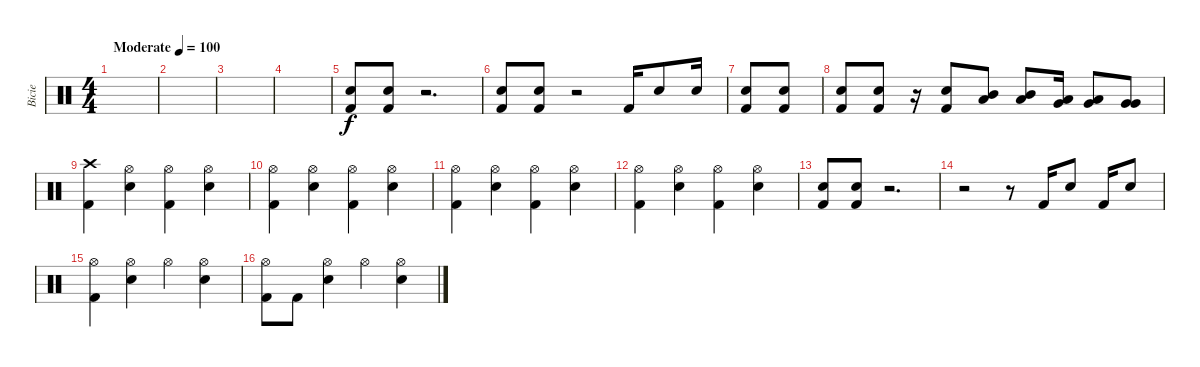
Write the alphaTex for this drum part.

\track ("Bicie" "Bicie") {instrument percussion}
\staff {score}
\articulation defaults
\ts (4 4)
\tempo (100 "Moderate")
\clef neutral
\ks c
|
|
|
|
("Snare (hit) 2" "Kick (hit) 2").8 ("Snare (hit) 2" "Kick (hit) 2").8 r.2{d} |
("Snare (hit) 2" "Kick (hit) 2").8 ("Snare (hit) 2" "Kick (hit) 2").8 r.2 "Kick (hit) 2".16 "Electric Snare (hit)".8 "Electric Snare (hit)".16 |
("Snare (hit) 2" "Kick (hit) 2").8 ("Snare (hit) 2" "Kick (hit) 2").8 |
("Snare (hit) 2" "Kick (hit) 2").8 ("Snare (hit) 2" "Kick (hit) 2").8 r.16 ("Snare (hit) 2" "Kick (hit) 2").8 ("Low Tom (hit)" "Mid Tom (hit)").8 ("Low Tom (hit)" "Mid Tom (hit)").8 ("Very Low Tom (hit)" "Low Tom (hit)").16 ("Very Low Tom (hit)" "Low Tom (hit)").8 ("Very Low Tom (hit)" "Very Low Tom (hit)").8 |
("Crash high (hit)" "Kick (hit) 2").4 ("Hi-Hat (open)" "Snare (hit) 2").4 ("Hi-Hat (open)" "Kick (hit) 2").4 ("Hi-Hat (open)" "Snare (hit) 2").4 |
("Hi-Hat (open)" "Kick (hit) 2").4 ("Hi-Hat (open)" "Snare (hit) 2").4 ("Hi-Hat (open)" "Kick (hit) 2").4 ("Hi-Hat (open)" "Snare (hit) 2").4 |
("Hi-Hat (open)" "Kick (hit) 2").4 ("Hi-Hat (open)" "Snare (hit) 2").4 ("Hi-Hat (open)" "Kick (hit) 2").4 ("Hi-Hat (open)" "Snare (hit) 2").4 |
("Hi-Hat (open)" "Kick (hit) 2").4 ("Hi-Hat (open)" "Snare (hit) 2").4 ("Hi-Hat (open)" "Kick (hit) 2").4 ("Hi-Hat (open)" "Snare (hit) 2").4 |
("Snare (hit) 2" "Kick (hit) 2").8 ("Snare (hit) 2" "Kick (hit) 2").8 r.2{d} |
r.2 r.8 "Kick (hit) 2".16 "Snare (hit) 2".8 "Kick (hit) 2".16 "Snare (hit) 2".8 |
("Hi-Hat (open)" "Kick (hit) 2").4 ("Hi-Hat (open)" "Snare (hit) 2").4 "Hi-Hat (open)".4 ("Hi-Hat (open)" "Snare (hit) 2").4 |
("Hi-Hat (open)" "Kick (hit) 2").8 "Kick (hit) 2".8 ("Hi-Hat (open)" "Snare (hit) 2").4 "Hi-Hat (open)".4 ("Hi-Hat (open)" "Snare (hit) 2").4
